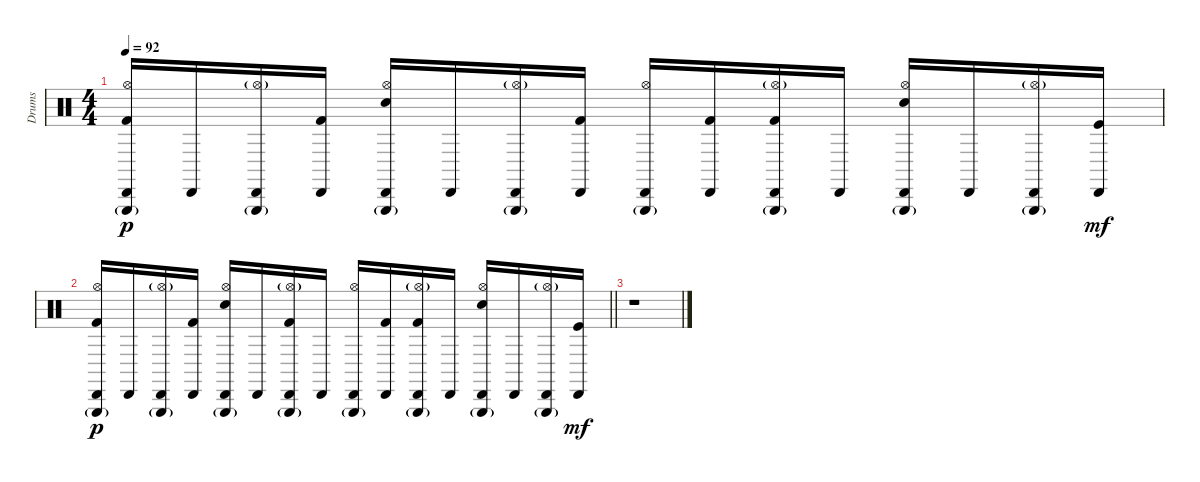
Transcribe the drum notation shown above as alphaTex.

\track ("Drums" "Drums") {instrument percussion}
\staff {score}
\articulation defaults
\ts (4 4)
\tempo 92
\clef neutral
\ks c
("Triangle (hit)"{g} "Hi-Hat (open)" "Cabasa (hit)" "Kick (hit) 2").16{dy p} "Cabasa (hit)".16 ("Triangle (hit)"{g} "Hi-Hat (open)"{g} "Cabasa (hit)").16 ("Cabasa (hit)" "Kick (hit) 2").16 ("Triangle (hit)"{g} "Hi-Hat (open)" "Cabasa (hit)" "Electric Snare (hit)").16 "Cabasa (hit)".16 ("Triangle (hit)"{g} "Hi-Hat (open)"{g} "Cabasa (hit)").16 ("Cabasa (hit)" "Kick (hit) 2").16 ("Triangle (hit)"{g} "Hi-Hat (open)" "Cabasa (hit)").16 ("Cabasa (hit)" "Kick (hit) 2").16 ("Triangle (hit)"{g} "Hi-Hat (open)"{g} "Cabasa (hit)" "Kick (hit) 2").16 "Cabasa (hit)".16 ("Triangle (hit)"{g} "Hi-Hat (open)" "Cabasa (hit)" "Electric Snare (hit)").16 "Cabasa (hit)".16 ("Triangle (hit)"{g} "Hi-Hat (open)"{g} "Cabasa (hit)").16 ("Cabasa (hit)" "Kick (hit)").16{dy mf} |
\barLineRight lightlight
("Triangle (hit)"{g} "Hi-Hat (open)" "Cabasa (hit)" "Kick (hit) 2").16{dy p} "Cabasa (hit)".16 ("Triangle (hit)"{g} "Hi-Hat (open)"{g} "Cabasa (hit)").16 ("Cabasa (hit)" "Kick (hit) 2").16 ("Triangle (hit)"{g} "Hi-Hat (open)" "Cabasa (hit)" "Electric Snare (hit)").16 "Cabasa (hit)".16 ("Triangle (hit)"{g} "Hi-Hat (open)"{g} "Cabasa (hit)" "Kick (hit) 2").16 "Cabasa (hit)".16 ("Triangle (hit)"{g} "Hi-Hat (open)" "Cabasa (hit)").16 ("Cabasa (hit)" "Kick (hit) 2").16 ("Triangle (hit)"{g} "Hi-Hat (open)"{g} "Cabasa (hit)" "Kick (hit) 2").16 "Cabasa (hit)".16 ("Triangle (hit)"{g} "Hi-Hat (open)" "Cabasa (hit)" "Electric Snare (hit)").16 "Cabasa (hit)".16 ("Triangle (hit)"{g} "Hi-Hat (open)"{g} "Cabasa (hit)").16 ("Cabasa (hit)" "Kick (hit)").16{dy mf} |
r.1
